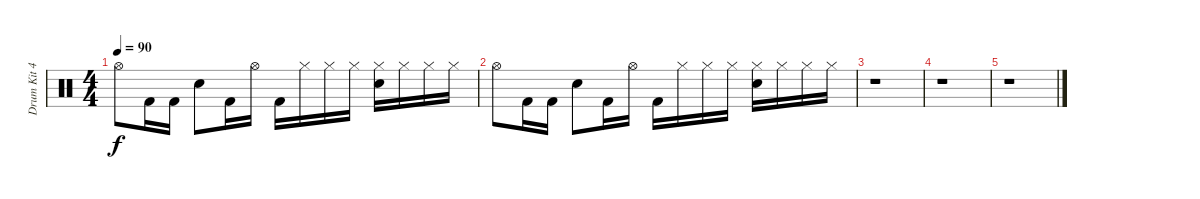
\track ("Drum Kit 42" "Drum Kit 4") {instrument percussion}
\staff {score}
\articulation defaults
\ts (4 4)
\tempo 90
\clef neutral
\ks c "Hi-Hat (open)".8{dy f volume 0} "Kick (hit) 2".16 "Kick (hit) 2".16 "Snare (hit) 2".8 "Kick (hit) 2".16 "Hi-Hat (open)".16 "Kick (hit) 2".16 "Hi-Hat (closed)".16 "Hi-Hat (closed)".16 "Hi-Hat (closed)".16
("Hi-Hat (closed)" "Snare (hit) 2").16 "Hi-Hat (closed)".16 "Hi-Hat (closed)".16 "Hi-Hat (closed)".16 |
"Hi-Hat (open)".8 "Kick (hit) 2".16 "Kick (hit) 2".16 "Snare (hit) 2".8 "Kick (hit) 2".16 "Hi-Hat (open)".16 "Kick (hit) 2".16 "Hi-Hat (closed)".16 "Hi-Hat (closed)".16 "Hi-Hat (closed)".16 ("Hi-Hat (closed)" "Snare (hit) 2").16 "Hi-Hat (closed)".16 "Hi-Hat (closed)".16 "Hi-Hat (closed)".16 |
r.1 |
r.1 |
r.1
